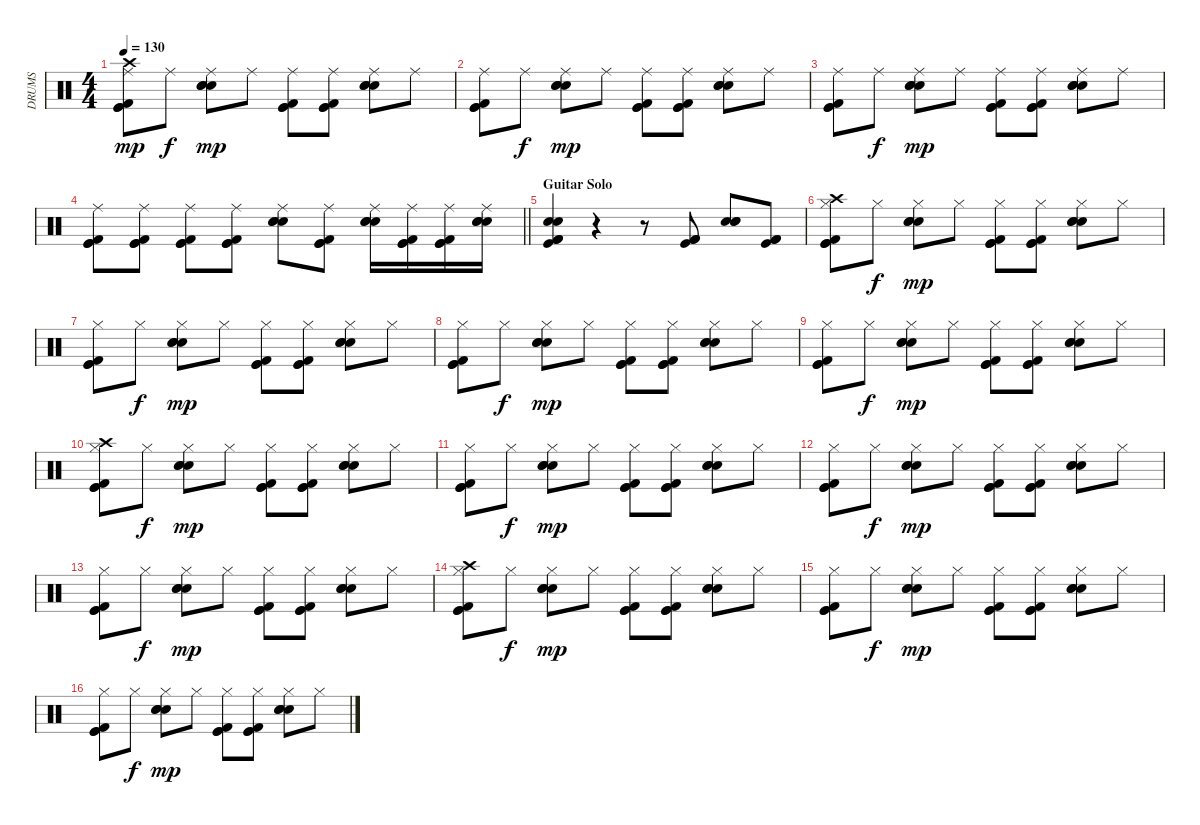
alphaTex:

\track ("DRUMS" "DRUMS") {instrument percussion}
\staff {score}
\articulation defaults
\ts (4 4)
\tempo 130
\clef neutral
\ks c
("Ride (middle)" "Kick (hit) 2" "Kick (hit)" "Kick (hit)" "Crash high (hit)").8{dy mp} "Ride (middle)".8{dy f} ("Ride (middle)" "Electric Snare (hit)" "Snare (hit) 2" "Snare (hit) 2").8{dy mp} "Ride (middle)".8 ("Ride (middle)" "Kick (hit) 2" "Kick (hit)" "Kick (hit)").8 ("Ride (middle)" "Kick (hit) 2" "Kick (hit)" "Kick (hit)").8 ("Ride (middle)" "Electric Snare (hit)" "Snare (hit) 2" "Snare (hit) 2").8 "Ride (middle)".8 |
("Ride (middle)" "Kick (hit) 2" "Kick (hit)" "Kick (hit)").8 "Ride (middle)".8{dy f} ("Ride (middle)" "Electric Snare (hit)" "Snare (hit) 2" "Snare (hit) 2").8{dy mp} "Ride (middle)".8 ("Ride (middle)" "Kick (hit) 2" "Kick (hit)" "Kick (hit)").8 ("Ride (middle)" "Kick (hit) 2" "Kick (hit)" "Kick (hit)").8 ("Ride (middle)" "Electric Snare (hit)" "Snare (hit) 2" "Snare (hit) 2").8 "Ride (middle)".8 |
("Ride (middle)" "Kick (hit) 2" "Kick (hit)" "Kick (hit)").8 "Ride (middle)".8{dy f} ("Ride (middle)" "Electric Snare (hit)" "Snare (hit) 2" "Snare (hit) 2").8{dy mp} "Ride (middle)".8 ("Ride (middle)" "Kick (hit) 2" "Kick (hit)" "Kick (hit)").8 ("Ride (middle)" "Kick (hit) 2" "Kick (hit)" "Kick (hit)").8 ("Ride (middle)" "Electric Snare (hit)" "Snare (hit) 2" "Snare (hit) 2").8 "Ride (middle)".8 |
\barLineRight lightlight
("Ride (middle)" "Kick (hit) 2" "Kick (hit)" "Kick (hit)").8 ("Ride (middle)" "Kick (hit) 2" "Kick (hit)" "Kick (hit)").8 ("Ride (middle)" "Kick (hit) 2" "Kick (hit)" "Kick (hit)").8 ("Ride (middle)" "Kick (hit) 2" "Kick (hit)" "Kick (hit)").8 ("Ride (middle)" "Electric Snare (hit)" "Snare (hit) 2" "Snare (hit) 2").8 ("Ride (middle)" "Kick (hit) 2" "Kick (hit)" "Kick (hit)").8 ("Ride (middle)" "Electric Snare (hit)" "Snare (hit) 2" "Snare (hit) 2").16 ("Ride (middle)" "Kick (hit) 2" "Kick (hit)" "Kick (hit)").16 ("Ride (middle)" "Kick (hit) 2" "Kick (hit)" "Kick (hit)").16 ("Ride (middle)" "Electric Snare (hit)" "Snare (hit) 2" "Snare (hit) 2").16 |
\section ("" "Guitar Solo")
("Kick (hit) 2" "Kick (hit)" "Snare (hit) 2" "Electric Snare (hit)" "Kick (hit) 2").4{volume 10} r.4 r.8 ("Kick (hit) 2" "Kick (hit)" "Kick (hit) 2").8 ("Snare (hit) 2" "Electric Snare (hit)" "Snare (hit) 2").8 ("Kick (hit) 2" "Kick (hit)" "Kick (hit) 2").8 |
("Hi-Hat (closed)" "Kick (hit) 2" "Kick (hit)" "Kick (hit)" "Crash high (hit)").8{volume 8} "Hi-Hat (closed)".8{dy f} ("Hi-Hat (closed)" "Electric Snare (hit)" "Snare (hit) 2" "Snare (hit) 2").8{dy mp} "Hi-Hat (closed)".8 ("Hi-Hat (closed)" "Kick (hit) 2" "Kick (hit)" "Kick (hit)").8 ("Hi-Hat (closed)" "Kick (hit) 2" "Kick (hit)" "Kick (hit)").8 ("Hi-Hat (closed)" "Electric Snare (hit)" "Snare (hit) 2" "Snare (hit) 2").8 "Hi-Hat (closed)".8 |
("Hi-Hat (closed)" "Kick (hit) 2" "Kick (hit)" "Kick (hit)").8 "Hi-Hat (closed)".8{dy f} ("Hi-Hat (closed)" "Electric Snare (hit)" "Snare (hit) 2" "Snare (hit) 2").8{dy mp} "Hi-Hat (closed)".8 ("Hi-Hat (closed)" "Kick (hit) 2" "Kick (hit)" "Kick (hit)").8 ("Hi-Hat (closed)" "Kick (hit) 2" "Kick (hit)" "Kick (hit)").8 ("Hi-Hat (closed)" "Electric Snare (hit)" "Snare (hit) 2" "Snare (hit) 2").8 "Hi-Hat (closed)".8 |
("Hi-Hat (closed)" "Kick (hit) 2" "Kick (hit)" "Kick (hit)").8 "Hi-Hat (closed)".8{dy f} ("Hi-Hat (closed)" "Electric Snare (hit)" "Snare (hit) 2" "Snare (hit) 2").8{dy mp} "Hi-Hat (closed)".8 ("Hi-Hat (closed)" "Kick (hit) 2" "Kick (hit)" "Kick (hit)").8 ("Hi-Hat (closed)" "Kick (hit) 2" "Kick (hit)" "Kick (hit)").8 ("Hi-Hat (closed)" "Electric Snare (hit)" "Snare (hit) 2" "Snare (hit) 2").8 "Hi-Hat (closed)".8 |
("Hi-Hat (closed)" "Kick (hit) 2" "Kick (hit)" "Kick (hit)").8 "Hi-Hat (closed)".8{dy f} ("Hi-Hat (closed)" "Electric Snare (hit)" "Snare (hit) 2" "Snare (hit) 2").8{dy mp} "Hi-Hat (closed)".8 ("Hi-Hat (closed)" "Kick (hit) 2" "Kick (hit)" "Kick (hit)").8 ("Hi-Hat (closed)" "Kick (hit) 2" "Kick (hit)" "Kick (hit)").8 ("Hi-Hat (closed)" "Electric Snare (hit)" "Snare (hit) 2" "Snare (hit) 2").8 "Hi-Hat (closed)".8 |
("Hi-Hat (closed)" "Kick (hit) 2" "Kick (hit)" "Kick (hit)" "Crash high (hit)").8 "Hi-Hat (closed)".8{dy f} ("Hi-Hat (closed)" "Electric Snare (hit)" "Snare (hit) 2" "Snare (hit) 2").8{dy mp} "Hi-Hat (closed)".8 ("Hi-Hat (closed)" "Kick (hit) 2" "Kick (hit)" "Kick (hit)").8 ("Hi-Hat (closed)" "Kick (hit) 2" "Kick (hit)" "Kick (hit)").8 ("Hi-Hat (closed)" "Electric Snare (hit)" "Snare (hit) 2" "Snare (hit) 2").8 "Hi-Hat (closed)".8 |
("Hi-Hat (closed)" "Kick (hit) 2" "Kick (hit)" "Kick (hit)").8 "Hi-Hat (closed)".8{dy f} ("Hi-Hat (closed)" "Electric Snare (hit)" "Snare (hit) 2" "Snare (hit) 2").8{dy mp} "Hi-Hat (closed)".8 ("Hi-Hat (closed)" "Kick (hit) 2" "Kick (hit)" "Kick (hit)").8 ("Hi-Hat (closed)" "Kick (hit) 2" "Kick (hit)" "Kick (hit)").8 ("Hi-Hat (closed)" "Electric Snare (hit)" "Snare (hit) 2" "Snare (hit) 2").8 "Hi-Hat (closed)".8 |
("Hi-Hat (closed)" "Kick (hit) 2" "Kick (hit)" "Kick (hit)").8 "Hi-Hat (closed)".8{dy f} ("Hi-Hat (closed)" "Electric Snare (hit)" "Snare (hit) 2" "Snare (hit) 2").8{dy mp} "Hi-Hat (closed)".8 ("Hi-Hat (closed)" "Kick (hit) 2" "Kick (hit)" "Kick (hit)").8 ("Hi-Hat (closed)" "Kick (hit) 2" "Kick (hit)" "Kick (hit)").8 ("Hi-Hat (closed)" "Electric Snare (hit)" "Snare (hit) 2" "Snare (hit) 2").8 "Hi-Hat (closed)".8 |
("Hi-Hat (closed)" "Kick (hit) 2" "Kick (hit)" "Kick (hit)").8 "Hi-Hat (closed)".8{dy f} ("Hi-Hat (closed)" "Electric Snare (hit)" "Snare (hit) 2" "Snare (hit) 2").8{dy mp} "Hi-Hat (closed)".8 ("Hi-Hat (closed)" "Kick (hit) 2" "Kick (hit)" "Kick (hit)").8 ("Hi-Hat (closed)" "Kick (hit) 2" "Kick (hit)" "Kick (hit)").8 ("Hi-Hat (closed)" "Electric Snare (hit)" "Snare (hit) 2" "Snare (hit) 2").8 "Hi-Hat (closed)".8 |
("Hi-Hat (closed)" "Kick (hit) 2" "Kick (hit)" "Kick (hit)" "Crash high (hit)").8 "Hi-Hat (closed)".8{dy f} ("Hi-Hat (closed)" "Electric Snare (hit)" "Snare (hit) 2" "Snare (hit) 2").8{dy mp} "Hi-Hat (closed)".8 ("Hi-Hat (closed)" "Kick (hit) 2" "Kick (hit)" "Kick (hit)").8 ("Hi-Hat (closed)" "Kick (hit) 2" "Kick (hit)" "Kick (hit)").8 ("Hi-Hat (closed)" "Electric Snare (hit)" "Snare (hit) 2" "Snare (hit) 2").8 "Hi-Hat (closed)".8 |
("Hi-Hat (closed)" "Kick (hit) 2" "Kick (hit)" "Kick (hit)").8 "Hi-Hat (closed)".8{dy f} ("Hi-Hat (closed)" "Electric Snare (hit)" "Snare (hit) 2" "Snare (hit) 2").8{dy mp} "Hi-Hat (closed)".8 ("Hi-Hat (closed)" "Kick (hit) 2" "Kick (hit)" "Kick (hit)").8 ("Hi-Hat (closed)" "Kick (hit) 2" "Kick (hit)" "Kick (hit)").8 ("Hi-Hat (closed)" "Electric Snare (hit)" "Snare (hit) 2" "Snare (hit) 2").8 "Hi-Hat (closed)".8 |
("Hi-Hat (closed)" "Kick (hit) 2" "Kick (hit)" "Kick (hit)").8 "Hi-Hat (closed)".8{dy f} ("Hi-Hat (closed)" "Electric Snare (hit)" "Snare (hit) 2" "Snare (hit) 2").8{dy mp} "Hi-Hat (closed)".8 ("Hi-Hat (closed)" "Kick (hit) 2" "Kick (hit)" "Kick (hit)").8 ("Hi-Hat (closed)" "Kick (hit) 2" "Kick (hit)" "Kick (hit)").8 ("Hi-Hat (closed)" "Electric Snare (hit)" "Snare (hit) 2" "Snare (hit) 2").8 "Hi-Hat (closed)".8
